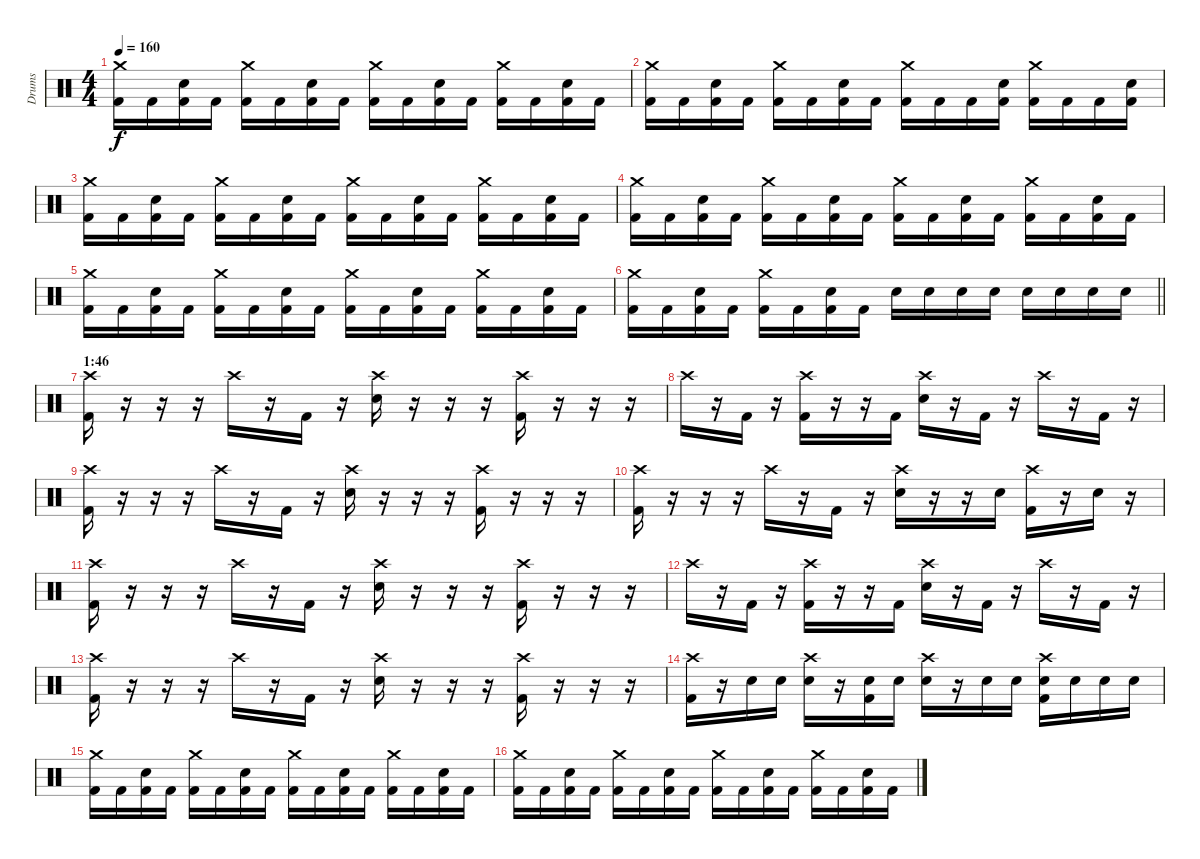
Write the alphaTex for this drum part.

\track ("Drums" "Drums") {instrument percussion}
\staff {score}
\articulation defaults
\ts (4 4)
\tempo 160
\clef neutral
\ks c
("Crash medium (hit)" "Kick (hit) 2").16{dy f} "Kick (hit) 2".16 ("Electric Snare (hit)" "Kick (hit) 2").16 "Kick (hit) 2".16 ("Crash medium (hit)" "Kick (hit) 2").16 "Kick (hit) 2".16 ("Electric Snare (hit)" "Kick (hit) 2").16 "Kick (hit) 2".16 ("Crash medium (hit)" "Kick (hit) 2").16 "Kick (hit) 2".16 ("Electric Snare (hit)" "Kick (hit) 2").16 "Kick (hit) 2".16 ("Crash medium (hit)" "Kick (hit) 2").16 "Kick (hit) 2".16 ("Electric Snare (hit)" "Kick (hit) 2").16 "Kick (hit) 2".16 |
("Crash medium (hit)" "Kick (hit) 2").16 "Kick (hit) 2".16 ("Electric Snare (hit)" "Kick (hit) 2").16 "Kick (hit) 2".16 ("Crash medium (hit)" "Kick (hit) 2").16 "Kick (hit) 2".16 ("Electric Snare (hit)" "Kick (hit) 2").16 "Kick (hit) 2".16 ("Crash medium (hit)" "Kick (hit) 2").16 "Kick (hit) 2".16 "Kick (hit) 2".16 ("Electric Snare (hit)" "Kick (hit) 2").16 ("Crash medium (hit)" "Kick (hit) 2").16 "Kick (hit) 2".16 "Kick (hit) 2".16 ("Electric Snare (hit)" "Kick (hit) 2").16 |
("Crash medium (hit)" "Kick (hit) 2").16 "Kick (hit) 2".16 ("Electric Snare (hit)" "Kick (hit) 2").16 "Kick (hit) 2".16 ("Crash medium (hit)" "Kick (hit) 2").16 "Kick (hit) 2".16 ("Electric Snare (hit)" "Kick (hit) 2").16 "Kick (hit) 2".16 ("Crash medium (hit)" "Kick (hit) 2").16 "Kick (hit) 2".16 ("Electric Snare (hit)" "Kick (hit) 2").16 "Kick (hit) 2".16 ("Crash medium (hit)" "Kick (hit) 2").16 "Kick (hit) 2".16 ("Electric Snare (hit)" "Kick (hit) 2").16 "Kick (hit) 2".16 |
("Crash medium (hit)" "Kick (hit) 2").16 "Kick (hit) 2".16 ("Electric Snare (hit)" "Kick (hit) 2").16 "Kick (hit) 2".16 ("Crash medium (hit)" "Kick (hit) 2").16 "Kick (hit) 2".16 ("Electric Snare (hit)" "Kick (hit) 2").16 "Kick (hit) 2".16 ("Crash medium (hit)" "Kick (hit) 2").16 "Kick (hit) 2".16 ("Electric Snare (hit)" "Kick (hit) 2").16 "Kick (hit) 2".16 ("Crash medium (hit)" "Kick (hit) 2").16 "Kick (hit) 2".16 ("Electric Snare (hit)" "Kick (hit) 2").16 "Kick (hit) 2".16 |
("Crash medium (hit)" "Kick (hit) 2").16 "Kick (hit) 2".16 ("Electric Snare (hit)" "Kick (hit) 2").16 "Kick (hit) 2".16 ("Crash medium (hit)" "Kick (hit) 2").16 "Kick (hit) 2".16 ("Electric Snare (hit)" "Kick (hit) 2").16 "Kick (hit) 2".16 ("Crash medium (hit)" "Kick (hit) 2").16 "Kick (hit) 2".16 ("Electric Snare (hit)" "Kick (hit) 2").16 "Kick (hit) 2".16 ("Crash medium (hit)" "Kick (hit) 2").16 "Kick (hit) 2".16 ("Electric Snare (hit)" "Kick (hit) 2").16 "Kick (hit) 2".16 |
\barLineRight lightlight
("Crash medium (hit)" "Kick (hit) 2").16 "Kick (hit) 2".16 ("Electric Snare (hit)" "Kick (hit) 2").16 "Kick (hit) 2".16 ("Crash medium (hit)" "Kick (hit) 2").16 "Kick (hit) 2".16 ("Electric Snare (hit)" "Kick (hit) 2").16 "Kick (hit) 2".16 "Electric Snare (hit)".16 "Electric Snare (hit)".16 "Electric Snare (hit)".16 "Electric Snare (hit)".16 "Electric Snare (hit)".16 "Electric Snare (hit)".16 "Electric Snare (hit)".16 "Electric Snare (hit)".16 |
\section ("" "1:46")
("Crash high (hit)" "Kick (hit) 2").16 r.16 r.16 r.16 "Crash high (hit)".16 r.16 "Kick (hit) 2".16 r.16 ("Crash high (hit)" "Electric Snare (hit)").16 r.16 r.16 r.16 ("Crash high (hit)" "Kick (hit) 2").16 r.16 r.16 r.16 |
"Crash high (hit)".16 r.16 "Kick (hit) 2".16 r.16 ("Crash high (hit)" "Kick (hit) 2").16 r.16 r.16 "Kick (hit) 2".16 ("Crash high (hit)" "Electric Snare (hit)").16 r.16 "Kick (hit) 2".16 r.16 "Crash high (hit)".16 r.16 "Kick (hit) 2".16 r.16 |
("Crash high (hit)" "Kick (hit) 2").16 r.16 r.16 r.16 "Crash high (hit)".16 r.16 "Kick (hit) 2".16 r.16 ("Crash high (hit)" "Electric Snare (hit)").16 r.16 r.16 r.16 ("Crash high (hit)" "Kick (hit) 2").16 r.16 r.16 r.16 |
("Crash high (hit)" "Kick (hit) 2").16 r.16 r.16 r.16 "Crash high (hit)".16 r.16 "Kick (hit) 2".16 r.16 ("Crash high (hit)" "Electric Snare (hit)").16 r.16 r.16 "Electric Snare (hit)".16 ("Crash high (hit)" "Kick (hit) 2").16 r.16 "Electric Snare (hit)".16 r.16 |
("Crash high (hit)" "Kick (hit) 2").16 r.16 r.16 r.16 "Crash high (hit)".16 r.16 "Kick (hit) 2".16 r.16 ("Crash high (hit)" "Electric Snare (hit)").16 r.16 r.16 r.16 ("Crash high (hit)" "Kick (hit) 2").16 r.16 r.16 r.16 |
"Crash high (hit)".16 r.16 "Kick (hit) 2".16 r.16 ("Crash high (hit)" "Kick (hit) 2").16 r.16 r.16 "Kick (hit) 2".16 ("Crash high (hit)" "Electric Snare (hit)").16 r.16 "Kick (hit) 2".16 r.16 "Crash high (hit)".16 r.16 "Kick (hit) 2".16 r.16 |
("Crash high (hit)" "Kick (hit) 2").16 r.16 r.16 r.16 "Crash high (hit)".16 r.16 "Kick (hit) 2".16 r.16 ("Crash high (hit)" "Electric Snare (hit)").16 r.16 r.16 r.16 ("Crash high (hit)" "Kick (hit) 2").16 r.16 r.16 r.16 |
("Crash high (hit)" "Kick (hit) 2").16 r.16 "Electric Snare (hit)".16 "Electric Snare (hit)".16 ("Crash high (hit)" "Electric Snare (hit)").16 r.16 ("Electric Snare (hit)" "Kick (hit) 2").16 "Electric Snare (hit)".16 ("Crash high (hit)" "Electric Snare (hit)").16 r.16 "Electric Snare (hit)".16 "Electric Snare (hit)".16 ("Crash high (hit)" "Electric Snare (hit)" "Kick (hit) 2").16 "Electric Snare (hit)".16 "Electric Snare (hit)".16 "Electric Snare (hit)".16 |
("Crash medium (hit)" "Kick (hit) 2").16 "Kick (hit) 2".16 ("Electric Snare (hit)" "Kick (hit) 2").16 "Kick (hit) 2".16 ("Crash medium (hit)" "Kick (hit) 2").16 "Kick (hit) 2".16 ("Electric Snare (hit)" "Kick (hit) 2").16 "Kick (hit) 2".16 ("Crash medium (hit)" "Kick (hit) 2").16 "Kick (hit) 2".16 ("Electric Snare (hit)" "Kick (hit) 2").16 "Kick (hit) 2".16 ("Crash medium (hit)" "Kick (hit) 2").16 "Kick (hit) 2".16 ("Electric Snare (hit)" "Kick (hit) 2").16 "Kick (hit) 2".16 |
("Crash medium (hit)" "Kick (hit) 2").16 "Kick (hit) 2".16 ("Electric Snare (hit)" "Kick (hit) 2").16 "Kick (hit) 2".16 ("Crash medium (hit)" "Kick (hit) 2").16 "Kick (hit) 2".16 ("Electric Snare (hit)" "Kick (hit) 2").16 "Kick (hit) 2".16 ("Crash medium (hit)" "Kick (hit) 2").16 "Kick (hit) 2".16 ("Electric Snare (hit)" "Kick (hit) 2").16 "Kick (hit) 2".16 ("Crash medium (hit)" "Kick (hit) 2").16 "Kick (hit) 2".16 ("Electric Snare (hit)" "Kick (hit) 2").16 "Kick (hit) 2".16
